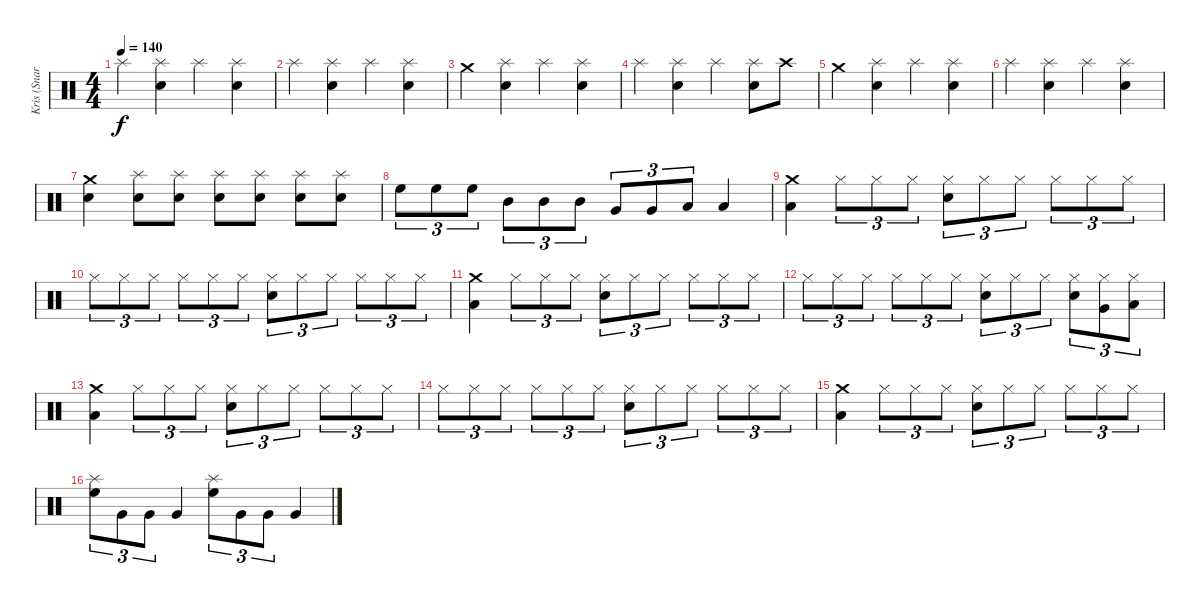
\track ("Kris (Snares & Toms)" "Kris (Snar") {instrument percussion}
\staff {score}
\articulation defaults
\ts (4 4)
\tempo 140
\clef neutral
\ks c "Splash (hit)".4{dy f}
("Splash (hit)" "Electric Snare (hit)").4 "Splash (hit)".4 ("Splash (hit)" "Electric Snare (hit)").4 |
"Splash (hit)".4 ("Splash (hit)" "Electric Snare (hit)").4 "Splash (hit)".4 ("Splash (hit)" "Electric Snare (hit)").4 |
"Crash medium (hit)".4 ("Splash (hit)" "Electric Snare (hit)").4 "Splash (hit)".4 ("Splash (hit)" "Electric Snare (hit)").4 |
"Splash (hit)".4 ("Splash (hit)" "Electric Snare (hit)").4 "Splash (hit)".4 ("Splash (hit)" "Electric Snare (hit)").8 "Crash high (hit)".8 |
"Crash medium (hit)".4 ("Splash (hit)" "Electric Snare (hit)").4 "Splash (hit)".4 ("Splash (hit)" "Electric Snare (hit)").4 |
"Splash (hit)".4 ("Splash (hit)" "Electric Snare (hit)").4 "Splash (hit)".4 ("Splash (hit)" "Electric Snare (hit)").4 |
("Crash medium (hit)" "Electric Snare (hit)").4 ("Splash (hit)" "Electric Snare (hit)").8 ("Splash (hit)" "Electric Snare (hit)").8 ("Splash (hit)" "Electric Snare (hit)").8 ("Splash (hit)" "Electric Snare (hit)").8 ("Splash (hit)" "Electric Snare (hit)").8 ("Splash (hit)" "Electric Snare (hit)").8 |
"High Floor Tom (hit)".8{tu (3 2)} "High Floor Tom (hit)".8{tu (3 2)} "High Floor Tom (hit)".8{tu (3 2)} "Mid Tom (hit)".8{tu (3 2)} "Mid Tom (hit)".8{tu (3 2)} "Mid Tom (hit)".8{tu (3 2)} "Very Low Tom (hit)".8{tu (3 2)} "Very Low Tom (hit)".8{tu (3 2)} "Low Floor Tom (hit)".8{tu (3 2)} "Low Floor Tom (hit)".4 |
("Crash medium (hit)" "Low Floor Tom (hit)").4 "Hi-Hat (closed)".8{tu (3 2)} "Hi-Hat (closed)".8{tu (3 2)} "Hi-Hat (closed)".8{tu (3 2)} ("Hi-Hat (closed)" "Electric Snare (hit)").8{tu (3 2)} "Hi-Hat (closed)".8{tu (3 2)} "Hi-Hat (closed)".8{tu (3 2)} "Hi-Hat (closed)".8{tu (3 2)} "Hi-Hat (closed)".8{tu (3 2)} "Hi-Hat (closed)".8{tu (3 2)} |
"Hi-Hat (closed)".8{tu (3 2)} "Hi-Hat (closed)".8{tu (3 2)} "Hi-Hat (closed)".8{tu (3 2)} "Hi-Hat (closed)".8{tu (3 2)} "Hi-Hat (closed)".8{tu (3 2)} "Hi-Hat (closed)".8{tu (3 2)} ("Hi-Hat (closed)" "Electric Snare (hit)").8{tu (3 2)} "Hi-Hat (closed)".8{tu (3 2)} "Hi-Hat (closed)".8{tu (3 2)} "Hi-Hat (closed)".8{tu (3 2)} "Hi-Hat (closed)".8{tu (3 2)} "Hi-Hat (closed)".8{tu (3 2)} |
("Crash medium (hit)" "Low Floor Tom (hit)").4 "Hi-Hat (closed)".8{tu (3 2)} "Hi-Hat (closed)".8{tu (3 2)} "Hi-Hat (closed)".8{tu (3 2)} ("Hi-Hat (closed)" "Electric Snare (hit)").8{tu (3 2)} "Hi-Hat (closed)".8{tu (3 2)} "Hi-Hat (closed)".8{tu (3 2)} "Hi-Hat (closed)".8{tu (3 2)} "Hi-Hat (closed)".8{tu (3 2)} "Hi-Hat (closed)".8{tu (3 2)} |
"Hi-Hat (closed)".8{tu (3 2)} "Hi-Hat (closed)".8{tu (3 2)} "Hi-Hat (closed)".8{tu (3 2)} "Hi-Hat (closed)".8{tu (3 2)} "Hi-Hat (closed)".8{tu (3 2)} "Hi-Hat (closed)".8{tu (3 2)} ("Hi-Hat (closed)" "Electric Snare (hit)").8{tu (3 2)} "Hi-Hat (closed)".8{tu (3 2)} "Hi-Hat (closed)".8{tu (3 2)} ("Hi-Hat (closed)" "Electric Snare (hit)").8{tu (3 2)} ("Hi-Hat (closed)" "Very Low Tom (hit)").8{tu (3 2)} ("Hi-Hat (closed)" "Low Floor Tom (hit)").8{tu (3 2)} |
("Crash medium (hit)" "Low Floor Tom (hit)").4 "Hi-Hat (closed)".8{tu (3 2)} "Hi-Hat (closed)".8{tu (3 2)} "Hi-Hat (closed)".8{tu (3 2)} ("Hi-Hat (closed)" "Electric Snare (hit)").8{tu (3 2)} "Hi-Hat (closed)".8{tu (3 2)} "Hi-Hat (closed)".8{tu (3 2)} "Hi-Hat (closed)".8{tu (3 2)} "Hi-Hat (closed)".8{tu (3 2)} "Hi-Hat (closed)".8{tu (3 2)} |
"Hi-Hat (closed)".8{tu (3 2)} "Hi-Hat (closed)".8{tu (3 2)} "Hi-Hat (closed)".8{tu (3 2)} "Hi-Hat (closed)".8{tu (3 2)} "Hi-Hat (closed)".8{tu (3 2)} "Hi-Hat (closed)".8{tu (3 2)} ("Hi-Hat (closed)" "Electric Snare (hit)").8{tu (3 2)} "Hi-Hat (closed)".8{tu (3 2)} "Hi-Hat (closed)".8{tu (3 2)} "Hi-Hat (closed)".8{tu (3 2)} "Hi-Hat (closed)".8{tu (3 2)} "Hi-Hat (closed)".8{tu (3 2)} |
("Crash medium (hit)" "Low Floor Tom (hit)").4 "Hi-Hat (closed)".8{tu (3 2)} "Hi-Hat (closed)".8{tu (3 2)} "Hi-Hat (closed)".8{tu (3 2)} ("Hi-Hat (closed)" "Electric Snare (hit)").8{tu (3 2)} "Hi-Hat (closed)".8{tu (3 2)} "Hi-Hat (closed)".8{tu (3 2)} "Hi-Hat (closed)".8{tu (3 2)} "Hi-Hat (closed)".8{tu (3 2)} "Hi-Hat (closed)".8{tu (3 2)} |
("High Floor Tom (hit)" "Splash (hit)").8{tu (3 2)} "Very Low Tom (hit)".8{tu (3 2)} "Very Low Tom (hit)".8{tu (3 2)} "Very Low Tom (hit)".4 ("High Floor Tom (hit)" "Splash (hit)").8{tu (3 2)} "Very Low Tom (hit)".8{tu (3 2)} "Very Low Tom (hit)".8{tu (3 2)} "Very Low Tom (hit)".4
